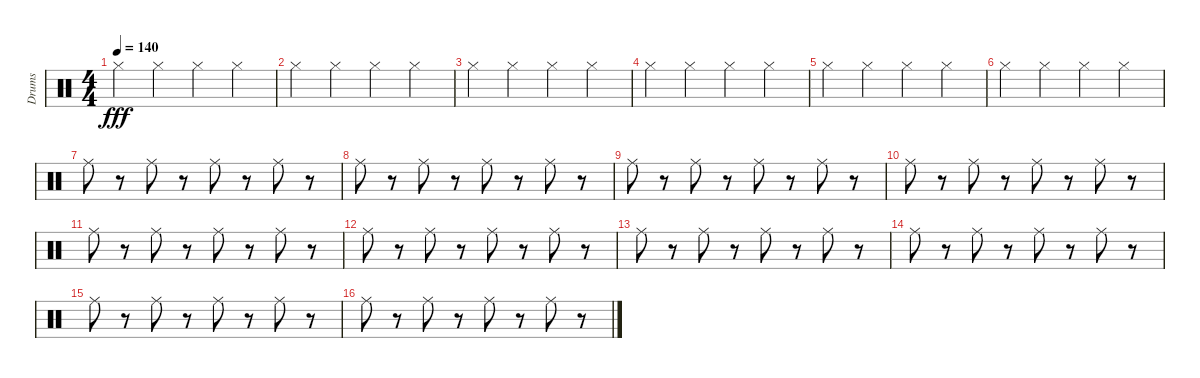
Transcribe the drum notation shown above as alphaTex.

\track ("Drums" "Drums") {instrument percussion}
\staff {score}
\articulation defaults
\ts (4 4)
\tempo 140
\clef neutral
\ks c "Hi-Hat (closed)".4{dy fff} "Hi-Hat (closed)".4 "Hi-Hat (closed)".4 "Hi-Hat (closed)".4
|
"Hi-Hat (closed)".4 "Hi-Hat (closed)".4 "Hi-Hat (closed)".4 "Hi-Hat (closed)".4 |
"Hi-Hat (closed)".4 "Hi-Hat (closed)".4 "Hi-Hat (closed)".4 "Hi-Hat (closed)".4 |
"Hi-Hat (closed)".4 "Hi-Hat (closed)".4 "Hi-Hat (closed)".4 "Hi-Hat (closed)".4 |
"Hi-Hat (closed)".4 "Hi-Hat (closed)".4 "Hi-Hat (closed)".4 "Hi-Hat (closed)".4 |
"Hi-Hat (closed)".4 "Hi-Hat (closed)".4 "Hi-Hat (closed)".4 "Hi-Hat (closed)".4 |
"Ride (middle)".8 r.8 "Ride (middle)".8 r.8 "Ride (middle)".8 r.8 "Ride (middle)".8 r.8 |
"Ride (middle)".8 r.8 "Ride (middle)".8 r.8 "Ride (middle)".8 r.8 "Ride (middle)".8 r.8 |
"Ride (middle)".8 r.8 "Ride (middle)".8 r.8 "Ride (middle)".8 r.8 "Ride (middle)".8 r.8 |
"Ride (middle)".8 r.8 "Ride (middle)".8 r.8 "Ride (middle)".8 r.8 "Ride (middle)".8 r.8 |
"Ride (middle)".8 r.8 "Ride (middle)".8 r.8 "Ride (middle)".8 r.8 "Ride (middle)".8 r.8 |
"Ride (middle)".8 r.8 "Ride (middle)".8 r.8 "Ride (middle)".8 r.8 "Ride (middle)".8 r.8 |
"Ride (middle)".8 r.8 "Ride (middle)".8 r.8 "Ride (middle)".8 r.8 "Ride (middle)".8 r.8 |
"Ride (middle)".8 r.8 "Ride (middle)".8 r.8 "Ride (middle)".8 r.8 "Ride (middle)".8 r.8 |
"Ride (middle)".8 r.8 "Ride (middle)".8 r.8 "Ride (middle)".8 r.8 "Ride (middle)".8 r.8 |
"Ride (middle)".8 r.8 "Ride (middle)".8 r.8 "Ride (middle)".8 r.8 "Ride (middle)".8 r.8
